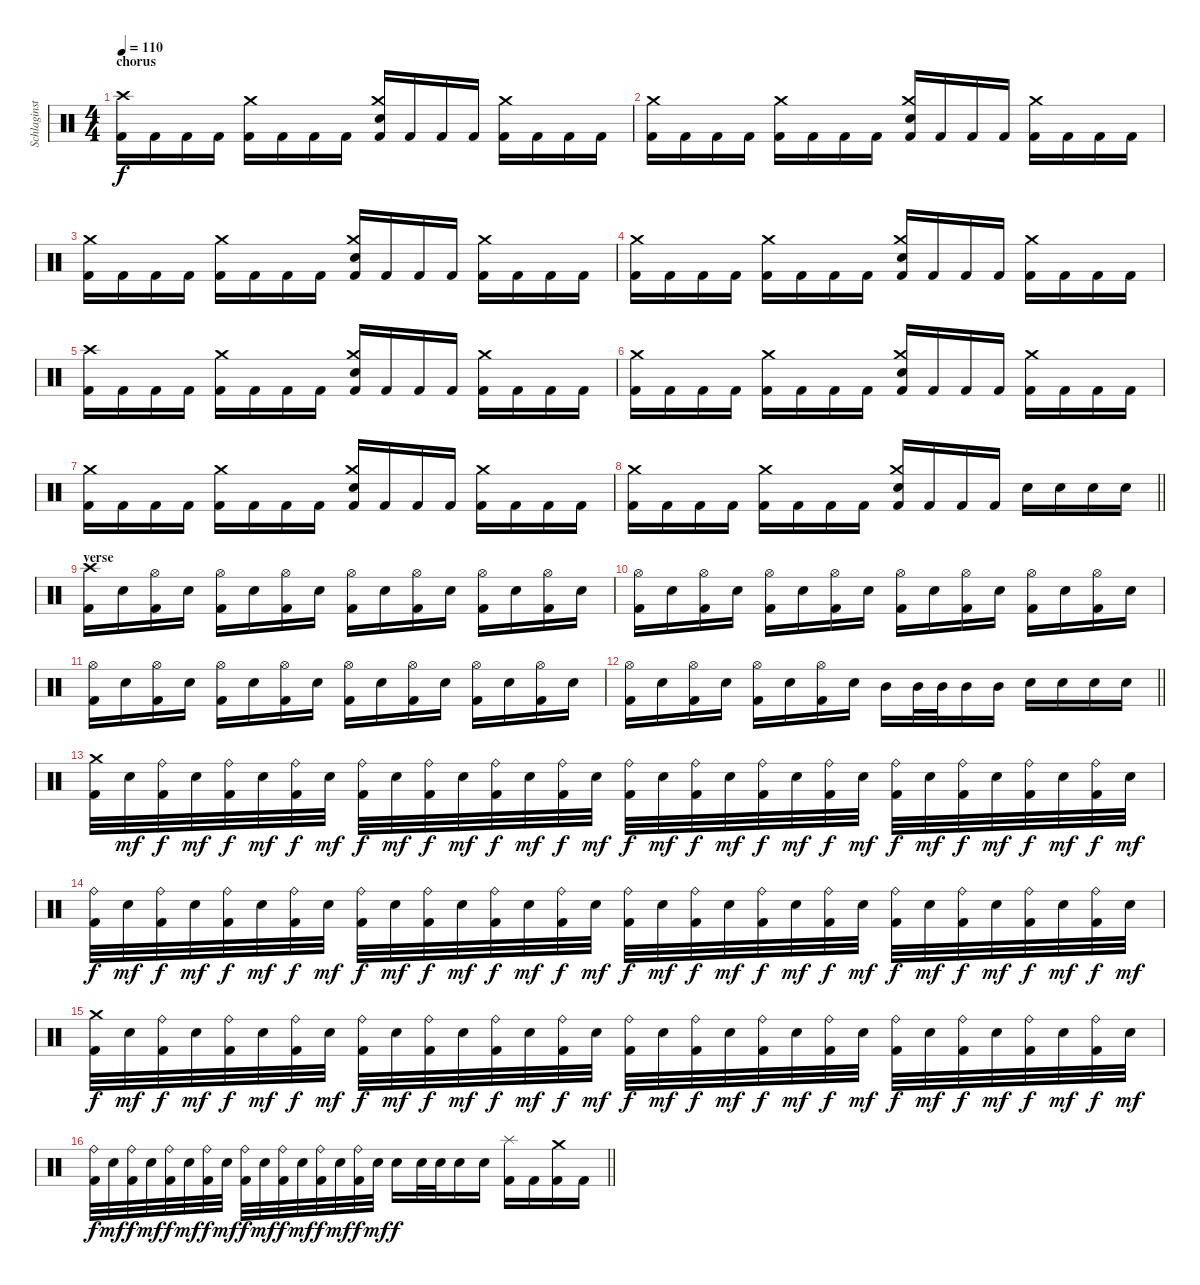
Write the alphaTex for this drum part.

\track ("Schlaginstrumente - Auswahl" "Schlaginst") {instrument percussion}
\staff {score}
\articulation defaults
\ts (4 4)
\section ("" "chorus")
\tempo 110
\clef neutral
\ks c
("Crash high (hit)" "Kick (hit) 2").16{dy f} "Kick (hit) 2".16 "Kick (hit) 2".16 "Kick (hit) 2".16 ("Crash medium (hit)" "Kick (hit) 2").16 "Kick (hit) 2".16 "Kick (hit) 2".16 "Kick (hit) 2".16 ("Crash medium (hit)" "Electric Snare (hit)" "Kick (hit) 2").16 "Kick (hit) 2".16 "Kick (hit) 2".16 "Kick (hit) 2".16 ("Crash medium (hit)" "Kick (hit) 2").16 "Kick (hit) 2".16 "Kick (hit) 2".16 "Kick (hit) 2".16 |
("Crash medium (hit)" "Kick (hit) 2").16 "Kick (hit) 2".16 "Kick (hit) 2".16 "Kick (hit) 2".16 ("Crash medium (hit)" "Kick (hit) 2").16 "Kick (hit) 2".16 "Kick (hit) 2".16 "Kick (hit) 2".16 ("Crash medium (hit)" "Electric Snare (hit)" "Kick (hit) 2").16 "Kick (hit) 2".16 "Kick (hit) 2".16 "Kick (hit) 2".16 ("Crash medium (hit)" "Kick (hit) 2").16 "Kick (hit) 2".16 "Kick (hit) 2".16 "Kick (hit) 2".16 |
("Crash medium (hit)" "Kick (hit) 2").16 "Kick (hit) 2".16 "Kick (hit) 2".16 "Kick (hit) 2".16 ("Crash medium (hit)" "Kick (hit) 2").16 "Kick (hit) 2".16 "Kick (hit) 2".16 "Kick (hit) 2".16 ("Crash medium (hit)" "Electric Snare (hit)" "Kick (hit) 2").16 "Kick (hit) 2".16 "Kick (hit) 2".16 "Kick (hit) 2".16 ("Crash medium (hit)" "Kick (hit) 2").16 "Kick (hit) 2".16 "Kick (hit) 2".16 "Kick (hit) 2".16 |
("Crash medium (hit)" "Kick (hit) 2").16 "Kick (hit) 2".16 "Kick (hit) 2".16 "Kick (hit) 2".16 ("Crash medium (hit)" "Kick (hit) 2").16 "Kick (hit) 2".16 "Kick (hit) 2".16 "Kick (hit) 2".16 ("Crash medium (hit)" "Electric Snare (hit)" "Kick (hit) 2").16 "Kick (hit) 2".16 "Kick (hit) 2".16 "Kick (hit) 2".16 ("Crash medium (hit)" "Kick (hit) 2").16 "Kick (hit) 2".16 "Kick (hit) 2".16 "Kick (hit) 2".16 |
("Crash high (hit)" "Kick (hit) 2").16 "Kick (hit) 2".16 "Kick (hit) 2".16 "Kick (hit) 2".16 ("Crash medium (hit)" "Kick (hit) 2").16 "Kick (hit) 2".16 "Kick (hit) 2".16 "Kick (hit) 2".16 ("Crash medium (hit)" "Electric Snare (hit)" "Kick (hit) 2").16 "Kick (hit) 2".16 "Kick (hit) 2".16 "Kick (hit) 2".16 ("Crash medium (hit)" "Kick (hit) 2").16 "Kick (hit) 2".16 "Kick (hit) 2".16 "Kick (hit) 2".16 |
("Crash medium (hit)" "Kick (hit) 2").16 "Kick (hit) 2".16 "Kick (hit) 2".16 "Kick (hit) 2".16 ("Crash medium (hit)" "Kick (hit) 2").16 "Kick (hit) 2".16 "Kick (hit) 2".16 "Kick (hit) 2".16 ("Crash medium (hit)" "Electric Snare (hit)" "Kick (hit) 2").16 "Kick (hit) 2".16 "Kick (hit) 2".16 "Kick (hit) 2".16 ("Crash medium (hit)" "Kick (hit) 2").16 "Kick (hit) 2".16 "Kick (hit) 2".16 "Kick (hit) 2".16 |
("Crash medium (hit)" "Kick (hit) 2").16 "Kick (hit) 2".16 "Kick (hit) 2".16 "Kick (hit) 2".16 ("Crash medium (hit)" "Kick (hit) 2").16 "Kick (hit) 2".16 "Kick (hit) 2".16 "Kick (hit) 2".16 ("Crash medium (hit)" "Electric Snare (hit)" "Kick (hit) 2").16 "Kick (hit) 2".16 "Kick (hit) 2".16 "Kick (hit) 2".16 ("Crash medium (hit)" "Kick (hit) 2").16 "Kick (hit) 2".16 "Kick (hit) 2".16 "Kick (hit) 2".16 |
\barLineRight lightlight
("Crash medium (hit)" "Kick (hit) 2").16 "Kick (hit) 2".16 "Kick (hit) 2".16 "Kick (hit) 2".16 ("Crash medium (hit)" "Kick (hit) 2").16 "Kick (hit) 2".16 "Kick (hit) 2".16 "Kick (hit) 2".16 ("Crash medium (hit)" "Electric Snare (hit)" "Kick (hit) 2").16 "Kick (hit) 2".16 "Kick (hit) 2".16 "Kick (hit) 2".16 "Electric Snare (hit)".16 "Electric Snare (hit)".16 "Electric Snare (hit)".16 "Electric Snare (hit)".16 |
\section ("" "verse")
("Crash high (hit)" "Kick (hit) 2").16 "Electric Snare (hit)".16 ("Hi-Hat (open)" "Kick (hit) 2").16 "Electric Snare (hit)".16 ("Hi-Hat (open)" "Kick (hit) 2").16 "Electric Snare (hit)".16 ("Hi-Hat (open)" "Kick (hit) 2").16 "Electric Snare (hit)".16 ("Hi-Hat (open)" "Kick (hit) 2").16 "Electric Snare (hit)".16 ("Hi-Hat (open)" "Kick (hit) 2").16 "Electric Snare (hit)".16 ("Hi-Hat (open)" "Kick (hit) 2").16 "Electric Snare (hit)".16 ("Hi-Hat (open)" "Kick (hit) 2").16 "Electric Snare (hit)".16 |
("Hi-Hat (open)" "Kick (hit) 2").16 "Electric Snare (hit)".16 ("Hi-Hat (open)" "Kick (hit) 2").16 "Electric Snare (hit)".16 ("Hi-Hat (open)" "Kick (hit) 2").16 "Electric Snare (hit)".16 ("Hi-Hat (open)" "Kick (hit) 2").16 "Electric Snare (hit)".16 ("Hi-Hat (open)" "Kick (hit) 2").16 "Electric Snare (hit)".16 ("Hi-Hat (open)" "Kick (hit) 2").16 "Electric Snare (hit)".16 ("Hi-Hat (open)" "Kick (hit) 2").16 "Electric Snare (hit)".16 ("Hi-Hat (open)" "Kick (hit) 2").16 "Electric Snare (hit)".16 |
("Hi-Hat (open)" "Kick (hit) 2").16 "Electric Snare (hit)".16 ("Hi-Hat (open)" "Kick (hit) 2").16 "Electric Snare (hit)".16 ("Hi-Hat (open)" "Kick (hit) 2").16 "Electric Snare (hit)".16 ("Hi-Hat (open)" "Kick (hit) 2").16 "Electric Snare (hit)".16 ("Hi-Hat (open)" "Kick (hit) 2").16 "Electric Snare (hit)".16 ("Hi-Hat (open)" "Kick (hit) 2").16 "Electric Snare (hit)".16 ("Hi-Hat (open)" "Kick (hit) 2").16 "Electric Snare (hit)".16 ("Hi-Hat (open)" "Kick (hit) 2").16 "Electric Snare (hit)".16 |
\barLineRight lightlight
("Hi-Hat (open)" "Kick (hit) 2").16 "Electric Snare (hit)".16 ("Hi-Hat (open)" "Kick (hit) 2").16 "Electric Snare (hit)".16 ("Hi-Hat (open)" "Kick (hit) 2").16 "Electric Snare (hit)".16 ("Hi-Hat (open)" "Kick (hit) 2").16 "Electric Snare (hit)".16 "Mid Tom (hit)".16 "Mid Tom (hit)".32 "Mid Tom (hit)".32 "Mid Tom (hit)".16 "Mid Tom (hit)".16 "Electric Snare (hit)".16 "Electric Snare (hit)".16 "Electric Snare (hit)".16 "Electric Snare (hit)".16 |
\section ("" "")
("Crash medium (hit)" "Kick (hit) 2").32 "Electric Snare (hit)".32{dy mf} ("Ride (bell)" "Kick (hit) 2").32{dy f} "Electric Snare (hit)".32{dy mf} ("Ride (bell)" "Kick (hit) 2").32{dy f} "Electric Snare (hit)".32{dy mf} ("Ride (bell)" "Kick (hit) 2").32{dy f} "Electric Snare (hit)".32{dy mf} ("Ride (bell)" "Kick (hit) 2").32{dy f} "Electric Snare (hit)".32{dy mf} ("Ride (bell)" "Kick (hit) 2").32{dy f} "Electric Snare (hit)".32{dy mf} ("Ride (bell)" "Kick (hit) 2").32{dy f} "Electric Snare (hit)".32{dy mf} ("Ride (bell)" "Kick (hit) 2").32{dy f} "Electric Snare (hit)".32{dy mf} ("Ride (bell)" "Kick (hit) 2").32{dy f} "Electric Snare (hit)".32{dy mf} ("Ride (bell)" "Kick (hit) 2").32{dy f} "Electric Snare (hit)".32{dy mf} ("Ride (bell)" "Kick (hit) 2").32{dy f} "Electric Snare (hit)".32{dy mf} ("Ride (bell)" "Kick (hit) 2").32{dy f} "Electric Snare (hit)".32{dy mf} ("Ride (bell)" "Kick (hit) 2").32{dy f} "Electric Snare (hit)".32{dy mf} ("Ride (bell)" "Kick (hit) 2").32{dy f} "Electric Snare (hit)".32{dy mf} ("Ride (bell)" "Kick (hit) 2").32{dy f} "Electric Snare (hit)".32{dy mf} ("Ride (bell)" "Kick (hit) 2").32{dy f} "Electric Snare (hit)".32{dy mf} |
("Ride (bell)" "Kick (hit) 2").32{dy f} "Electric Snare (hit)".32{dy mf} ("Ride (bell)" "Kick (hit) 2").32{dy f} "Electric Snare (hit)".32{dy mf} ("Ride (bell)" "Kick (hit) 2").32{dy f} "Electric Snare (hit)".32{dy mf} ("Ride (bell)" "Kick (hit) 2").32{dy f} "Electric Snare (hit)".32{dy mf} ("Ride (bell)" "Kick (hit) 2").32{dy f} "Electric Snare (hit)".32{dy mf} ("Ride (bell)" "Kick (hit) 2").32{dy f} "Electric Snare (hit)".32{dy mf} ("Ride (bell)" "Kick (hit) 2").32{dy f} "Electric Snare (hit)".32{dy mf} ("Ride (bell)" "Kick (hit) 2").32{dy f} "Electric Snare (hit)".32{dy mf} ("Ride (bell)" "Kick (hit) 2").32{dy f} "Electric Snare (hit)".32{dy mf} ("Ride (bell)" "Kick (hit) 2").32{dy f} "Electric Snare (hit)".32{dy mf} ("Ride (bell)" "Kick (hit) 2").32{dy f} "Electric Snare (hit)".32{dy mf} ("Ride (bell)" "Kick (hit) 2").32{dy f} "Electric Snare (hit)".32{dy mf} ("Ride (bell)" "Kick (hit) 2").32{dy f} "Electric Snare (hit)".32{dy mf} ("Ride (bell)" "Kick (hit) 2").32{dy f} "Electric Snare (hit)".32{dy mf} ("Ride (bell)" "Kick (hit) 2").32{dy f} "Electric Snare (hit)".32{dy mf} ("Ride (bell)" "Kick (hit) 2").32{dy f} "Electric Snare (hit)".32{dy mf} |
("Crash medium (hit)" "Kick (hit) 2").32{dy f} "Electric Snare (hit)".32{dy mf} ("Ride (bell)" "Kick (hit) 2").32{dy f} "Electric Snare (hit)".32{dy mf} ("Ride (bell)" "Kick (hit) 2").32{dy f} "Electric Snare (hit)".32{dy mf} ("Ride (bell)" "Kick (hit) 2").32{dy f} "Electric Snare (hit)".32{dy mf} ("Ride (bell)" "Kick (hit) 2").32{dy f} "Electric Snare (hit)".32{dy mf} ("Ride (bell)" "Kick (hit) 2").32{dy f} "Electric Snare (hit)".32{dy mf} ("Ride (bell)" "Kick (hit) 2").32{dy f} "Electric Snare (hit)".32{dy mf} ("Ride (bell)" "Kick (hit) 2").32{dy f} "Electric Snare (hit)".32{dy mf} ("Ride (bell)" "Kick (hit) 2").32{dy f} "Electric Snare (hit)".32{dy mf} ("Ride (bell)" "Kick (hit) 2").32{dy f} "Electric Snare (hit)".32{dy mf} ("Ride (bell)" "Kick (hit) 2").32{dy f} "Electric Snare (hit)".32{dy mf} ("Ride (bell)" "Kick (hit) 2").32{dy f} "Electric Snare (hit)".32{dy mf} ("Ride (bell)" "Kick (hit) 2").32{dy f} "Electric Snare (hit)".32{dy mf} ("Ride (bell)" "Kick (hit) 2").32{dy f} "Electric Snare (hit)".32{dy mf} ("Ride (bell)" "Kick (hit) 2").32{dy f} "Electric Snare (hit)".32{dy mf} ("Ride (bell)" "Kick (hit) 2").32{dy f} "Electric Snare (hit)".32{dy mf} |
\barLineRight lightlight
("Ride (bell)" "Kick (hit) 2").32{dy f} "Electric Snare (hit)".32{dy mf} ("Ride (bell)" "Kick (hit) 2").32{dy f} "Electric Snare (hit)".32{dy mf} ("Ride (bell)" "Kick (hit) 2").32{dy f} "Electric Snare (hit)".32{dy mf} ("Ride (bell)" "Kick (hit) 2").32{dy f} "Electric Snare (hit)".32{dy mf} ("Ride (bell)" "Kick (hit) 2").32{dy f} "Electric Snare (hit)".32{dy mf} ("Ride (bell)" "Kick (hit) 2").32{dy f} "Electric Snare (hit)".32{dy mf} ("Ride (bell)" "Kick (hit) 2").32{dy f} "Electric Snare (hit)".32{dy mf} ("Ride (bell)" "Kick (hit) 2").32{dy f} "Electric Snare (hit)".32{dy mf} "Electric Snare (hit)".16{dy f} "Electric Snare (hit)".32 "Electric Snare (hit)".32 "Electric Snare (hit)".16 "Electric Snare (hit)".16 ("Splash (hit)" "Kick (hit) 2").16 "Kick (hit) 2".16 ("Crash medium (hit)" "Kick (hit) 2").16 "Kick (hit) 2".16
